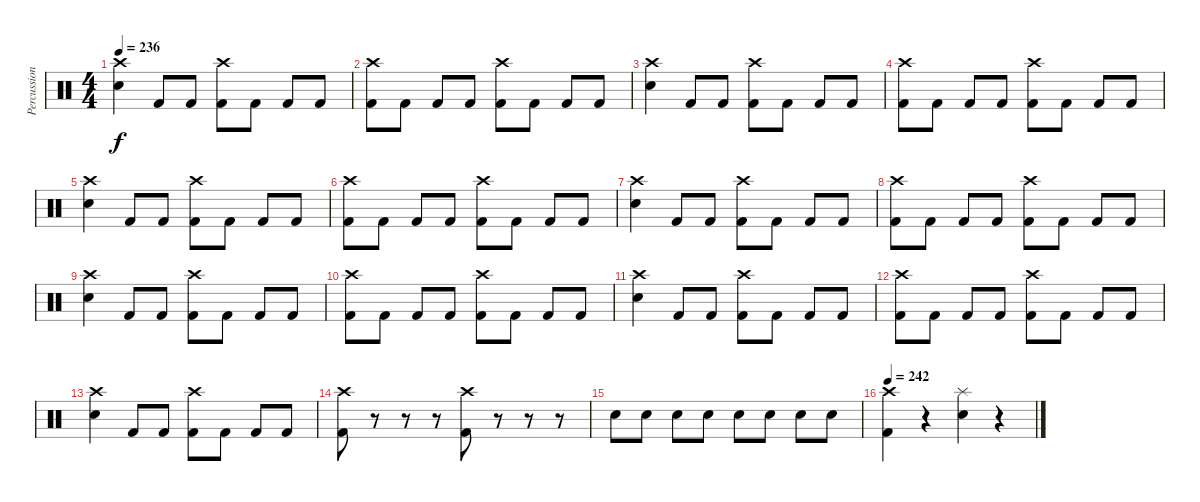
\track ("Percussion" "Percussion") {instrument percussion}
\staff {score}
\articulation defaults
\ts (4 4)
\tempo 236
\clef neutral
\ks c
("Crash high (hit)" "Electric Snare (hit)").4{dy f} "Kick (hit) 2".8 "Kick (hit) 2".8 ("Crash high (hit)" "Kick (hit) 2").8 "Kick (hit) 2".8 "Kick (hit) 2".8 "Kick (hit) 2".8 |
("Crash high (hit)" "Kick (hit) 2").8 "Kick (hit) 2".8 "Kick (hit) 2".8 "Kick (hit) 2".8 ("Crash high (hit)" "Kick (hit) 2").8 "Kick (hit) 2".8 "Kick (hit) 2".8 "Kick (hit) 2".8 |
("Crash high (hit)" "Electric Snare (hit)").4 "Kick (hit) 2".8 "Kick (hit) 2".8 ("Crash high (hit)" "Kick (hit) 2").8 "Kick (hit) 2".8 "Kick (hit) 2".8 "Kick (hit) 2".8 |
("Crash high (hit)" "Kick (hit) 2").8 "Kick (hit) 2".8 "Kick (hit) 2".8 "Kick (hit) 2".8 ("Crash high (hit)" "Kick (hit) 2").8 "Kick (hit) 2".8 "Kick (hit) 2".8 "Kick (hit) 2".8 |
("Crash high (hit)" "Electric Snare (hit)").4 "Kick (hit) 2".8 "Kick (hit) 2".8 ("Crash high (hit)" "Kick (hit) 2").8 "Kick (hit) 2".8 "Kick (hit) 2".8 "Kick (hit) 2".8 |
("Crash high (hit)" "Kick (hit) 2").8 "Kick (hit) 2".8 "Kick (hit) 2".8 "Kick (hit) 2".8 ("Crash high (hit)" "Kick (hit) 2").8 "Kick (hit) 2".8 "Kick (hit) 2".8 "Kick (hit) 2".8 |
("Crash high (hit)" "Electric Snare (hit)").4 "Kick (hit) 2".8 "Kick (hit) 2".8 ("Crash high (hit)" "Kick (hit) 2").8 "Kick (hit) 2".8 "Kick (hit) 2".8 "Kick (hit) 2".8 |
("Crash high (hit)" "Kick (hit) 2").8 "Kick (hit) 2".8 "Kick (hit) 2".8 "Kick (hit) 2".8 ("Crash high (hit)" "Kick (hit) 2").8 "Kick (hit) 2".8 "Kick (hit) 2".8 "Kick (hit) 2".8 |
("Crash high (hit)" "Electric Snare (hit)").4 "Kick (hit) 2".8 "Kick (hit) 2".8 ("Crash high (hit)" "Kick (hit) 2").8 "Kick (hit) 2".8 "Kick (hit) 2".8 "Kick (hit) 2".8 |
("Crash high (hit)" "Kick (hit) 2").8 "Kick (hit) 2".8 "Kick (hit) 2".8 "Kick (hit) 2".8 ("Crash high (hit)" "Kick (hit) 2").8 "Kick (hit) 2".8 "Kick (hit) 2".8 "Kick (hit) 2".8 |
("Crash high (hit)" "Electric Snare (hit)").4 "Kick (hit) 2".8 "Kick (hit) 2".8 ("Crash high (hit)" "Kick (hit) 2").8 "Kick (hit) 2".8 "Kick (hit) 2".8 "Kick (hit) 2".8 |
("Crash high (hit)" "Kick (hit) 2").8 "Kick (hit) 2".8 "Kick (hit) 2".8 "Kick (hit) 2".8 ("Crash high (hit)" "Kick (hit) 2").8 "Kick (hit) 2".8 "Kick (hit) 2".8 "Kick (hit) 2".8 |
("Crash high (hit)" "Electric Snare (hit)").4 "Kick (hit) 2".8 "Kick (hit) 2".8 ("Crash high (hit)" "Kick (hit) 2").8 "Kick (hit) 2".8 "Kick (hit) 2".8 "Kick (hit) 2".8 |
("Crash high (hit)" "Kick (hit) 2").8 r.8 r.8 r.8 ("Crash high (hit)" "Kick (hit) 2").8 r.8 r.8 r.8 |
"Electric Snare (hit)".8 "Electric Snare (hit)".8 "Electric Snare (hit)".8 "Electric Snare (hit)".8 "Electric Snare (hit)".8 "Electric Snare (hit)".8 "Electric Snare (hit)".8 "Electric Snare (hit)".8 |
\tempo 242
("Crash high (hit)" "Kick (hit) 2").4 r.4 ("Splash (hit)" "Electric Snare (hit)").4 r.4
